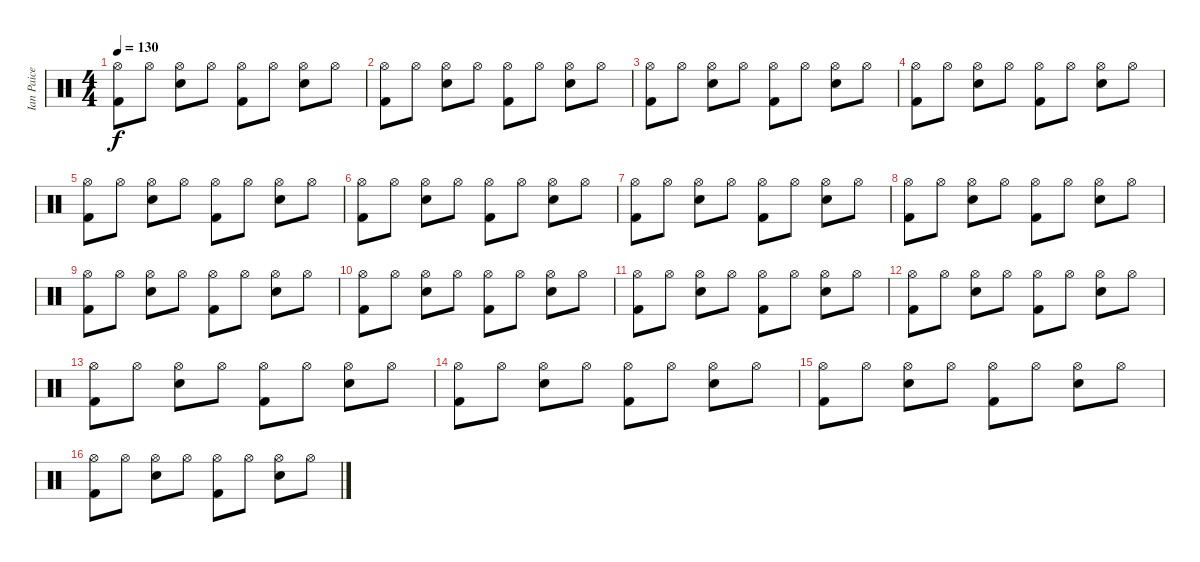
\track ("Ian Paice" "Ian Paice") {instrument percussion}
\staff {score}
\articulation defaults
\ts (4 4)
\tempo 130
\clef neutral
\ks c
("Hi-Hat (open)" "Kick (hit) 2").8{dy f} "Hi-Hat (open)".8 ("Hi-Hat (open)" "Snare (hit) 2").8 "Hi-Hat (open)".8 ("Hi-Hat (open)" "Kick (hit) 2").8 "Hi-Hat (open)".8 ("Hi-Hat (open)" "Snare (hit) 2").8 "Hi-Hat (open)".8 |
("Hi-Hat (open)" "Kick (hit) 2").8 "Hi-Hat (open)".8 ("Hi-Hat (open)" "Snare (hit) 2").8 "Hi-Hat (open)".8 ("Hi-Hat (open)" "Kick (hit) 2").8 "Hi-Hat (open)".8 ("Hi-Hat (open)" "Snare (hit) 2").8 "Hi-Hat (open)".8 |
("Hi-Hat (open)" "Kick (hit) 2").8 "Hi-Hat (open)".8 ("Hi-Hat (open)" "Snare (hit) 2").8 "Hi-Hat (open)".8 ("Hi-Hat (open)" "Kick (hit) 2").8 "Hi-Hat (open)".8 ("Hi-Hat (open)" "Snare (hit) 2").8 "Hi-Hat (open)".8 |
("Hi-Hat (open)" "Kick (hit) 2").8 "Hi-Hat (open)".8 ("Hi-Hat (open)" "Snare (hit) 2").8 "Hi-Hat (open)".8 ("Hi-Hat (open)" "Kick (hit) 2").8 "Hi-Hat (open)".8 ("Hi-Hat (open)" "Snare (hit) 2").8 "Hi-Hat (open)".8 |
("Hi-Hat (open)" "Kick (hit) 2").8 "Hi-Hat (open)".8 ("Hi-Hat (open)" "Snare (hit) 2").8 "Hi-Hat (open)".8 ("Hi-Hat (open)" "Kick (hit) 2").8 "Hi-Hat (open)".8 ("Hi-Hat (open)" "Snare (hit) 2").8 "Hi-Hat (open)".8 |
("Hi-Hat (open)" "Kick (hit) 2").8 "Hi-Hat (open)".8 ("Hi-Hat (open)" "Snare (hit) 2").8 "Hi-Hat (open)".8 ("Hi-Hat (open)" "Kick (hit) 2").8 "Hi-Hat (open)".8 ("Hi-Hat (open)" "Snare (hit) 2").8 "Hi-Hat (open)".8 |
("Hi-Hat (open)" "Kick (hit) 2").8 "Hi-Hat (open)".8 ("Hi-Hat (open)" "Snare (hit) 2").8 "Hi-Hat (open)".8 ("Hi-Hat (open)" "Kick (hit) 2").8 "Hi-Hat (open)".8 ("Hi-Hat (open)" "Snare (hit) 2").8 "Hi-Hat (open)".8 |
("Hi-Hat (open)" "Kick (hit) 2").8 "Hi-Hat (open)".8 ("Hi-Hat (open)" "Snare (hit) 2").8 "Hi-Hat (open)".8 ("Hi-Hat (open)" "Kick (hit) 2").8 "Hi-Hat (open)".8 ("Hi-Hat (open)" "Snare (hit) 2").8 "Hi-Hat (open)".8 |
("Hi-Hat (open)" "Kick (hit) 2").8 "Hi-Hat (open)".8 ("Hi-Hat (open)" "Snare (hit) 2").8 "Hi-Hat (open)".8 ("Hi-Hat (open)" "Kick (hit) 2").8 "Hi-Hat (open)".8 ("Hi-Hat (open)" "Snare (hit) 2").8 "Hi-Hat (open)".8 |
("Hi-Hat (open)" "Kick (hit) 2").8 "Hi-Hat (open)".8 ("Hi-Hat (open)" "Snare (hit) 2").8 "Hi-Hat (open)".8 ("Hi-Hat (open)" "Kick (hit) 2").8 "Hi-Hat (open)".8 ("Hi-Hat (open)" "Snare (hit) 2").8 "Hi-Hat (open)".8 |
("Hi-Hat (open)" "Kick (hit) 2").8 "Hi-Hat (open)".8 ("Hi-Hat (open)" "Snare (hit) 2").8 "Hi-Hat (open)".8 ("Hi-Hat (open)" "Kick (hit) 2").8 "Hi-Hat (open)".8 ("Hi-Hat (open)" "Snare (hit) 2").8 "Hi-Hat (open)".8 |
("Hi-Hat (open)" "Kick (hit) 2").8 "Hi-Hat (open)".8 ("Hi-Hat (open)" "Snare (hit) 2").8 "Hi-Hat (open)".8 ("Hi-Hat (open)" "Kick (hit) 2").8 "Hi-Hat (open)".8 ("Hi-Hat (open)" "Snare (hit) 2").8 "Hi-Hat (open)".8 |
("Hi-Hat (open)" "Kick (hit) 2").8 "Hi-Hat (open)".8 ("Hi-Hat (open)" "Snare (hit) 2").8 "Hi-Hat (open)".8 ("Hi-Hat (open)" "Kick (hit) 2").8 "Hi-Hat (open)".8 ("Hi-Hat (open)" "Snare (hit) 2").8 "Hi-Hat (open)".8 |
("Hi-Hat (open)" "Kick (hit) 2").8 "Hi-Hat (open)".8 ("Hi-Hat (open)" "Snare (hit) 2").8 "Hi-Hat (open)".8 ("Hi-Hat (open)" "Kick (hit) 2").8 "Hi-Hat (open)".8 ("Hi-Hat (open)" "Snare (hit) 2").8 "Hi-Hat (open)".8 |
("Hi-Hat (open)" "Kick (hit) 2").8 "Hi-Hat (open)".8 ("Hi-Hat (open)" "Snare (hit) 2").8 "Hi-Hat (open)".8 ("Hi-Hat (open)" "Kick (hit) 2").8 "Hi-Hat (open)".8 ("Hi-Hat (open)" "Snare (hit) 2").8 "Hi-Hat (open)".8 |
("Hi-Hat (open)" "Kick (hit) 2").8 "Hi-Hat (open)".8 ("Hi-Hat (open)" "Snare (hit) 2").8 "Hi-Hat (open)".8 ("Hi-Hat (open)" "Kick (hit) 2").8 "Hi-Hat (open)".8 ("Hi-Hat (open)" "Snare (hit) 2").8 "Hi-Hat (open)".8
